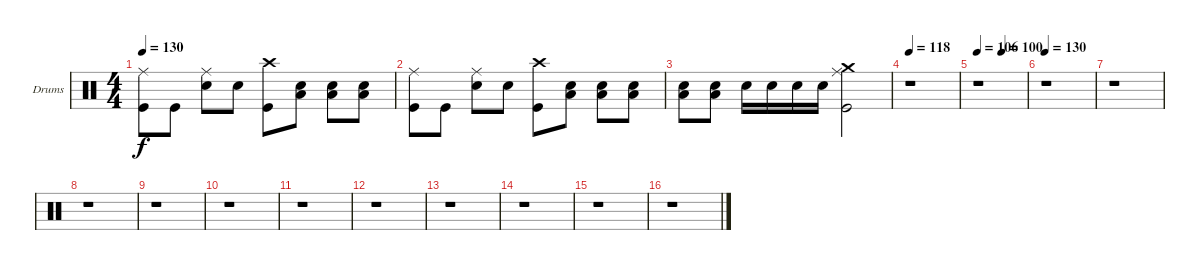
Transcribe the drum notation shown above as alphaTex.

\bracketExtendMode groupsimilarinstruments
\firstSystemTrackNameOrientation horizontal
\otherSystemsTrackNameOrientation horizontal
\track ("Drumkit" "Drums") {instrument percussion}
\staff {score}
\articulation defaults
\ts (4 4)
\tempo 130
\clef neutral
\ks c
("Kick (hit)" "Ride (middle)").8{dy f} "Kick (hit)".8 ("Ride (middle)" "Snare (hit) 2").8 "Snare (hit) 2".8 ("Kick (hit)" "Crash high (hit)").8 ("Snare (hit) 2" "Low Tom (hit)").8 ("Low Tom (hit)" "Snare (hit) 2").8 ("Snare (hit) 2" "Low Tom (hit)").8 |
("Kick (hit)" "Ride (middle)").8 "Kick (hit)".8 ("Ride (middle)" "Snare (hit) 2").8 "Snare (hit) 2".8 ("Kick (hit)" "Crash high (hit)").8 ("Snare (hit) 2" "Low Tom (hit)").8 ("Low Tom (hit)" "Snare (hit) 2").8 ("Snare (hit) 2" "Low Tom (hit)").8 |
("Snare (hit) 2" "Low Tom (hit)").8 ("Low Tom (hit)" "Snare (hit) 2").8 "Snare (hit) 2".16 "Snare (hit) 2".16 "Snare (hit) 2".16 "Snare (hit) 2".16 ("Kick (hit)" "Ride (middle)" "Crash medium (hit)").2 |
\tempo 118
r.1 |
\tempo 106
\tempo (100 0.5)
r.1 |
\tempo 130
r.1 |
r.1 |
r.1 |
r.1 |
r.1 |
r.1 |
r.1 |
r.1 |
r.1 |
r.1 |
r.1
